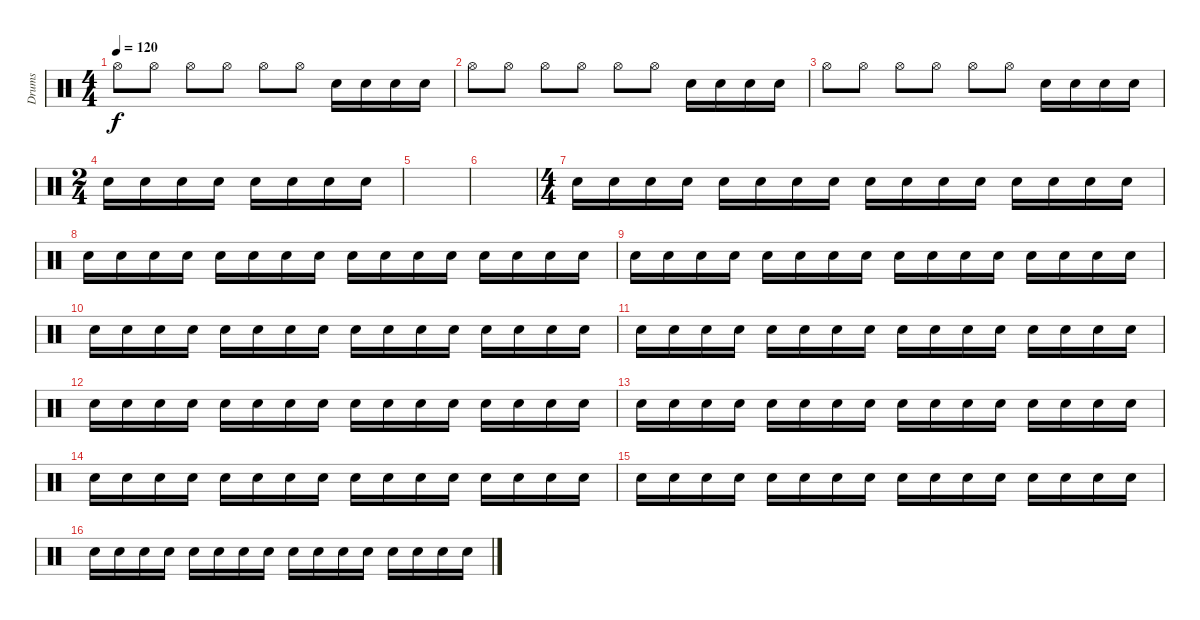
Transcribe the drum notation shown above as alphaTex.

\track ("Drums" "Drums") {instrument percussion}
\staff {score}
\articulation defaults
\ts (4 4)
\tempo 120
\clef neutral
\ks c "Hi-Hat (open)".8{dy f} "Hi-Hat (open)".8 "Hi-Hat (open)".8 "Hi-Hat (open)".8 "Hi-Hat (open)".8 "Hi-Hat (open)".8 "Electric Snare (hit)".16 "Electric Snare (hit)".16 "Electric Snare (hit)".16 "Electric Snare (hit)".16
|
"Hi-Hat (open)".8 "Hi-Hat (open)".8 "Hi-Hat (open)".8 "Hi-Hat (open)".8 "Hi-Hat (open)".8 "Hi-Hat (open)".8 "Electric Snare (hit)".16 "Electric Snare (hit)".16 "Electric Snare (hit)".16 "Electric Snare (hit)".16 |
"Hi-Hat (open)".8 "Hi-Hat (open)".8 "Hi-Hat (open)".8 "Hi-Hat (open)".8 "Hi-Hat (open)".8 "Hi-Hat (open)".8 "Electric Snare (hit)".16 "Electric Snare (hit)".16 "Electric Snare (hit)".16 "Electric Snare (hit)".16 |
\ts (2 4)
"Electric Snare (hit)".16 "Electric Snare (hit)".16 "Electric Snare (hit)".16 "Electric Snare (hit)".16 "Electric Snare (hit)".16 "Electric Snare (hit)".16 "Electric Snare (hit)".16 "Electric Snare (hit)".16 |
|
|
\ts (4 4)
"Electric Snare (hit)".16 "Electric Snare (hit)".16 "Electric Snare (hit)".16 "Electric Snare (hit)".16 "Electric Snare (hit)".16 "Electric Snare (hit)".16 "Electric Snare (hit)".16 "Electric Snare (hit)".16 "Electric Snare (hit)".16 "Electric Snare (hit)".16 "Electric Snare (hit)".16 "Electric Snare (hit)".16 "Electric Snare (hit)".16 "Electric Snare (hit)".16 "Electric Snare (hit)".16 "Electric Snare (hit)".16 |
"Electric Snare (hit)".16 "Electric Snare (hit)".16 "Electric Snare (hit)".16 "Electric Snare (hit)".16 "Electric Snare (hit)".16 "Electric Snare (hit)".16 "Electric Snare (hit)".16 "Electric Snare (hit)".16 "Electric Snare (hit)".16 "Electric Snare (hit)".16 "Electric Snare (hit)".16 "Electric Snare (hit)".16 "Electric Snare (hit)".16 "Electric Snare (hit)".16 "Electric Snare (hit)".16 "Electric Snare (hit)".16 |
"Electric Snare (hit)".16 "Electric Snare (hit)".16 "Electric Snare (hit)".16 "Electric Snare (hit)".16 "Electric Snare (hit)".16 "Electric Snare (hit)".16 "Electric Snare (hit)".16 "Electric Snare (hit)".16 "Electric Snare (hit)".16 "Electric Snare (hit)".16 "Electric Snare (hit)".16 "Electric Snare (hit)".16 "Electric Snare (hit)".16 "Electric Snare (hit)".16 "Electric Snare (hit)".16 "Electric Snare (hit)".16 |
"Electric Snare (hit)".16 "Electric Snare (hit)".16 "Electric Snare (hit)".16 "Electric Snare (hit)".16 "Electric Snare (hit)".16 "Electric Snare (hit)".16 "Electric Snare (hit)".16 "Electric Snare (hit)".16 "Electric Snare (hit)".16 "Electric Snare (hit)".16 "Electric Snare (hit)".16 "Electric Snare (hit)".16 "Electric Snare (hit)".16 "Electric Snare (hit)".16 "Electric Snare (hit)".16 "Electric Snare (hit)".16 |
"Electric Snare (hit)".16 "Electric Snare (hit)".16 "Electric Snare (hit)".16 "Electric Snare (hit)".16 "Electric Snare (hit)".16 "Electric Snare (hit)".16 "Electric Snare (hit)".16 "Electric Snare (hit)".16 "Electric Snare (hit)".16 "Electric Snare (hit)".16 "Electric Snare (hit)".16 "Electric Snare (hit)".16 "Electric Snare (hit)".16 "Electric Snare (hit)".16 "Electric Snare (hit)".16 "Electric Snare (hit)".16 |
"Electric Snare (hit)".16 "Electric Snare (hit)".16 "Electric Snare (hit)".16 "Electric Snare (hit)".16 "Electric Snare (hit)".16 "Electric Snare (hit)".16 "Electric Snare (hit)".16 "Electric Snare (hit)".16 "Electric Snare (hit)".16 "Electric Snare (hit)".16 "Electric Snare (hit)".16 "Electric Snare (hit)".16 "Electric Snare (hit)".16 "Electric Snare (hit)".16 "Electric Snare (hit)".16 "Electric Snare (hit)".16 |
"Electric Snare (hit)".16 "Electric Snare (hit)".16 "Electric Snare (hit)".16 "Electric Snare (hit)".16 "Electric Snare (hit)".16 "Electric Snare (hit)".16 "Electric Snare (hit)".16 "Electric Snare (hit)".16 "Electric Snare (hit)".16 "Electric Snare (hit)".16 "Electric Snare (hit)".16 "Electric Snare (hit)".16 "Electric Snare (hit)".16 "Electric Snare (hit)".16 "Electric Snare (hit)".16 "Electric Snare (hit)".16 |
"Electric Snare (hit)".16 "Electric Snare (hit)".16 "Electric Snare (hit)".16 "Electric Snare (hit)".16 "Electric Snare (hit)".16 "Electric Snare (hit)".16 "Electric Snare (hit)".16 "Electric Snare (hit)".16 "Electric Snare (hit)".16 "Electric Snare (hit)".16 "Electric Snare (hit)".16 "Electric Snare (hit)".16 "Electric Snare (hit)".16 "Electric Snare (hit)".16 "Electric Snare (hit)".16 "Electric Snare (hit)".16 |
"Electric Snare (hit)".16 "Electric Snare (hit)".16 "Electric Snare (hit)".16 "Electric Snare (hit)".16 "Electric Snare (hit)".16 "Electric Snare (hit)".16 "Electric Snare (hit)".16 "Electric Snare (hit)".16 "Electric Snare (hit)".16 "Electric Snare (hit)".16 "Electric Snare (hit)".16 "Electric Snare (hit)".16 "Electric Snare (hit)".16 "Electric Snare (hit)".16 "Electric Snare (hit)".16 "Electric Snare (hit)".16 |
"Electric Snare (hit)".16 "Electric Snare (hit)".16 "Electric Snare (hit)".16 "Electric Snare (hit)".16 "Electric Snare (hit)".16 "Electric Snare (hit)".16 "Electric Snare (hit)".16 "Electric Snare (hit)".16 "Electric Snare (hit)".16 "Electric Snare (hit)".16 "Electric Snare (hit)".16 "Electric Snare (hit)".16 "Electric Snare (hit)".16 "Electric Snare (hit)".16 "Electric Snare (hit)".16 "Electric Snare (hit)".16
